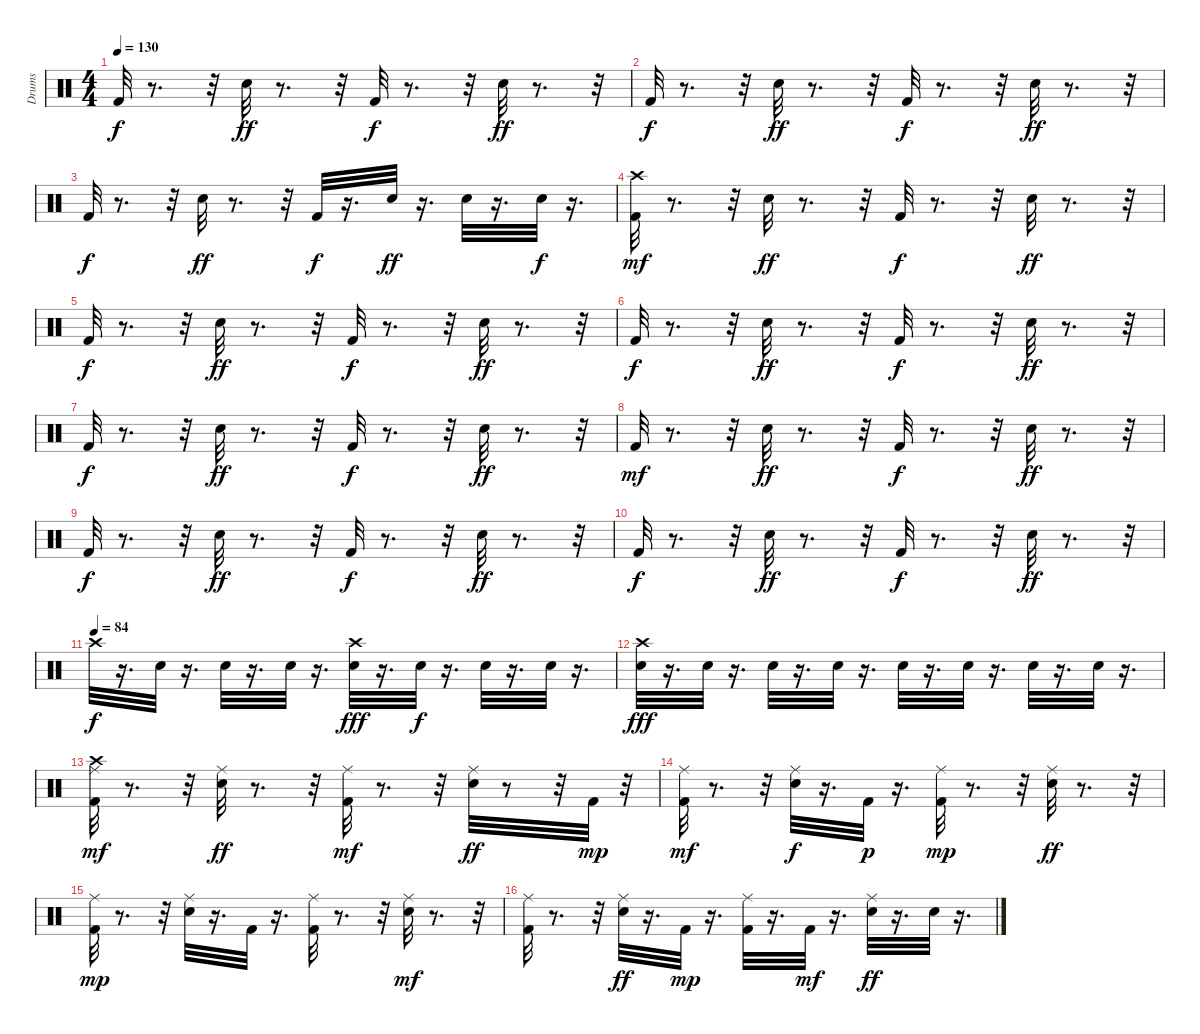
\track ("Drums" "Drums") {instrument percussion}
\staff {score}
\articulation defaults
\ts (4 4)
\tempo 130
\clef neutral
\ks c "Kick (hit) 2".32{dy f}
r.8{d} r.32 "Snare (hit) 2".32{dy ff} r.8{d} r.32 "Kick (hit) 2".32{dy f} r.8{d} r.32 "Snare (hit) 2".32{dy ff} r.8{d} r.32 |
"Kick (hit) 2".32{dy f} r.8{d} r.32 "Snare (hit) 2".32{dy ff} r.8{d} r.32 "Kick (hit) 2".32{dy f} r.8{d} r.32 "Snare (hit) 2".32{dy ff} r.8{d} r.32 |
"Kick (hit) 2".32{dy f} r.8{d} r.32 "Snare (hit) 2".32{dy ff} r.8{d} r.32 "Kick (hit) 2".32{dy f} r.16{d} "Snare (hit) 2".32{dy ff} r.16{d} "Snare (hit) 2".32 r.16{d} "Snare (hit) 2".32{dy f} r.16{d} |
("Crash high (hit)" "Kick (hit) 2").32{dy mf} r.8{d} r.32 "Snare (hit) 2".32{dy ff} r.8{d} r.32 "Kick (hit) 2".32{dy f} r.8{d} r.32 "Snare (hit) 2".32{dy ff} r.8{d} r.32 |
"Kick (hit) 2".32{dy f} r.8{d} r.32 "Snare (hit) 2".32{dy ff} r.8{d} r.32 "Kick (hit) 2".32{dy f} r.8{d} r.32 "Snare (hit) 2".32{dy ff} r.8{d} r.32 |
"Kick (hit) 2".32{dy f} r.8{d} r.32 "Snare (hit) 2".32{dy ff} r.8{d} r.32 "Kick (hit) 2".32{dy f} r.8{d} r.32 "Snare (hit) 2".32{dy ff} r.8{d} r.32 |
"Kick (hit) 2".32{dy f} r.8{d} r.32 "Snare (hit) 2".32{dy ff} r.8{d} r.32 "Kick (hit) 2".32{dy f} r.8{d} r.32 "Snare (hit) 2".32{dy ff} r.8{d} r.32 |
"Kick (hit) 2".32{dy mf} r.8{d} r.32 "Snare (hit) 2".32{dy ff} r.8{d} r.32 "Kick (hit) 2".32{dy f} r.8{d} r.32 "Snare (hit) 2".32{dy ff} r.8{d} r.32 |
"Kick (hit) 2".32{dy f} r.8{d} r.32 "Snare (hit) 2".32{dy ff} r.8{d} r.32 "Kick (hit) 2".32{dy f} r.8{d} r.32 "Snare (hit) 2".32{dy ff} r.8{d} r.32 |
"Kick (hit) 2".32{dy f} r.8{d} r.32 "Snare (hit) 2".32{dy ff} r.8{d} r.32 "Kick (hit) 2".32{dy f} r.8{d} r.32 "Snare (hit) 2".32{dy ff} r.8{d} r.32 |
\tempo (84)
"Crash high (hit)".32{dy f} r.16{d} "Snare (hit) 2".32 r.16{d} "Snare (hit) 2".32 r.16{d} "Snare (hit) 2".32 r.16{d} ("Crash high (hit)" "Snare (hit) 2").32{dy fff} r.16{d} "Snare (hit) 2".32{dy f} r.16{d} "Snare (hit) 2".32 r.16{d} "Snare (hit) 2".32 r.16{d} |
("Crash high (hit)" "Snare (hit) 2").32{dy fff} r.16{d} "Snare (hit) 2".32 r.16{d} "Snare (hit) 2".32 r.16{d} "Snare (hit) 2".32 r.16{d} "Snare (hit) 2".32 r.16{d} "Snare (hit) 2".32 r.16{d} "Snare (hit) 2".32 r.16{d} "Snare (hit) 2".32 r.16{d} |
("Kick (hit) 2" "Crash high (hit)" "Ride (middle)").32{dy mf} r.8{d} r.32 ("Snare (hit) 2" "Ride (middle)").32{dy ff} r.8{d} r.32 ("Kick (hit) 2" "Ride (middle)").32{dy mf} r.8{d} r.32 ("Snare (hit) 2" "Ride (middle)").32{dy ff} r.8 r.32 "Kick (hit) 2".32{dy mp} r.32 |
("Kick (hit) 2" "Ride (middle)").32{dy mf} r.8{d} r.32 ("Snare (hit) 2" "Ride (middle)").32{dy f} r.16{d} "Kick (hit) 2".32{dy p} r.16{d} ("Kick (hit) 2" "Ride (middle)").32{dy mp} r.8{d} r.32 ("Snare (hit) 2" "Ride (middle)").32{dy ff} r.8{d} r.32 |
("Kick (hit) 2" "Ride (middle)").32{dy mp} r.8{d} r.32 ("Snare (hit) 2" "Ride (middle)").32 r.16{d} "Kick (hit) 2".32 r.16{d} ("Kick (hit) 2" "Ride (middle)").32 r.8{d} r.32 ("Snare (hit) 2" "Ride (middle)").32{dy mf} r.8{d} r.32 |
("Kick (hit) 2" "Ride (middle)").32 r.8{d} r.32 ("Snare (hit) 2" "Ride (middle)").32{dy ff} r.16{d} "Kick (hit) 2".32{dy mp} r.16{d} ("Kick (hit) 2" "Ride (middle)").32 r.16{d} "Kick (hit) 2".32{dy mf} r.16{d} ("Snare (hit) 2" "Ride (middle)").32{dy ff} r.16{d} "Snare (hit) 2".32 r.16{d}
